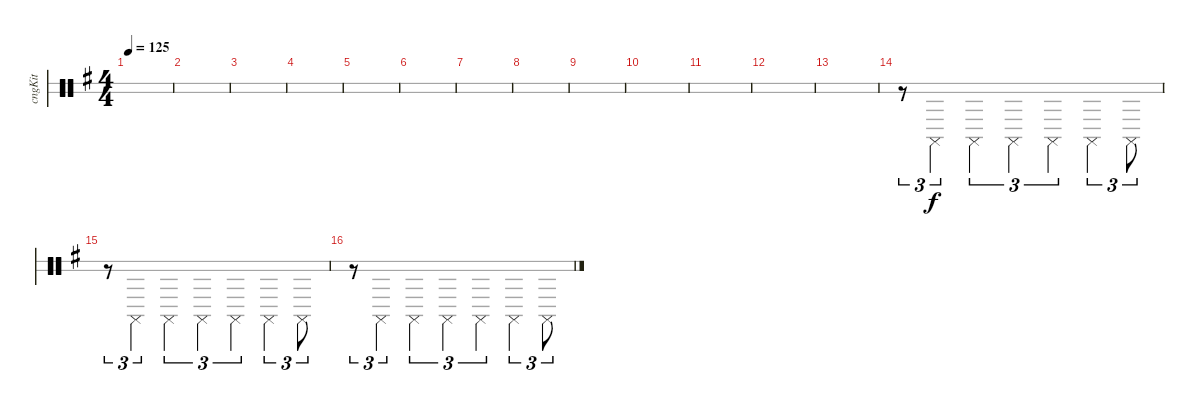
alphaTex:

\defaultSystemsLayout 4
\bracketExtendMode groupsimilarinstruments
\otherSystemsTrackNameOrientation horizontal
\track ("Congas" "cngKit") {instrument percussion}
\staff {score 2}
\articulation defaults
\ts (4 4)
\tempo 125
\clef neutral
\scale
0.474178
\ks g
|
\scale
0.262911 |
\scale
0.262911 |
\scale
0.333333 |
\scale
0.333333 |
\scale
0.333333 |
\scale
0.333333 |
\scale
0.333333 |
\scale
0.333333 |
\scale
0.333333 |
\scale
0.333333 |
\scale
0.333333 |
\scale
0.333333 |
\scale
0.333333 r.8{tu (3 2) beam Down} "Conga high (slap)"{acc forcenatural}.4{tu (3 2) beam Down} "Conga high (slap)"{acc forcenatural}.4{tu (3 2) beam Down} "Conga high (slap)"{acc forcenatural}.4{tu (3 2) beam Down} "Conga high (slap)"{acc forcenatural}.4{tu (3 2) beam Down} "Conga high (slap)"{acc forcenatural}.4{tu (3 2) beam Down} "Conga high (slap)"{acc forcenatural}.8{tu (3 2) beam Down} |
\scale
0.333333 r.8{tu (3 2) beam Down} "Conga high (slap)"{acc forcenatural}.4{tu (3 2) beam Down} "Conga high (slap)"{acc forcenatural}.4{tu (3 2) beam Down} "Conga high (slap)"{acc forcenatural}.4{tu (3 2) beam Down} "Conga high (slap)"{acc forcenatural}.4{tu (3 2) beam Down} "Conga high (slap)"{acc forcenatural}.4{tu (3 2) beam Down} "Conga high (slap)"{acc forcenatural}.8{tu (3 2) beam Down} |
\scale
0.333333 r.8{tu (3 2) beam Down} "Conga high (slap)"{acc forcenatural}.4{tu (3 2) beam Down} "Conga high (slap)"{acc forcenatural}.4{tu (3 2) beam Down} "Conga high (slap)"{acc forcenatural}.4{tu (3 2) beam Down} "Conga high (slap)"{acc forcenatural}.4{tu (3 2) beam Down} "Conga high (slap)"{acc forcenatural}.4{tu (3 2) beam Down} "Conga high (slap)"{acc forcenatural}.8{tu (3 2) beam Down}
